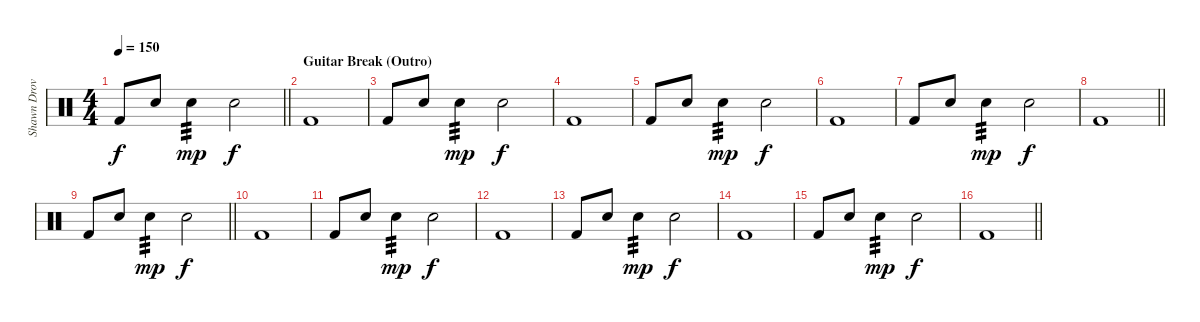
\track ("Shawn Drover" "Shawn Drov") {instrument percussion}
\staff {score}
\articulation defaults
\ts (4 4)
\tempo 150
\clef neutral
\barLineRight lightlight
\ks c "Kick (hit) 2".8{dy f} "Snare (hit) 2".8 "Snare (hit) 2".4{tp 3 dy mp} "Snare (hit) 2".2{dy f}
|
\section ("" "Guitar Break (Outro)")
"Kick (hit) 2".1 |
"Kick (hit) 2".8 "Snare (hit) 2".8 "Snare (hit) 2".4{tp 3 dy mp} "Snare (hit) 2".2{dy f} |
"Kick (hit) 2".1 |
"Kick (hit) 2".8 "Snare (hit) 2".8 "Snare (hit) 2".4{tp 3 dy mp} "Snare (hit) 2".2{dy f} |
"Kick (hit) 2".1 |
"Kick (hit) 2".8 "Snare (hit) 2".8 "Snare (hit) 2".4{tp 3 dy mp} "Snare (hit) 2".2{dy f} |
\barLineRight lightlight "Kick (hit) 2".1
|
\barLineRight lightlight "Kick (hit) 2".8 "Snare (hit) 2".8 "Snare (hit) 2".4{tp 3 dy mp} "Snare (hit) 2".2{dy f}
|
"Kick (hit) 2".1 |
"Kick (hit) 2".8 "Snare (hit) 2".8 "Snare (hit) 2".4{tp 3 dy mp} "Snare (hit) 2".2{dy f} |
"Kick (hit) 2".1 |
"Kick (hit) 2".8 "Snare (hit) 2".8 "Snare (hit) 2".4{tp 3 dy mp} "Snare (hit) 2".2{dy f} |
"Kick (hit) 2".1 |
"Kick (hit) 2".8 "Snare (hit) 2".8 "Snare (hit) 2".4{tp 3 dy mp} "Snare (hit) 2".2{dy f} |
\barLineRight lightlight "Kick (hit) 2".1
